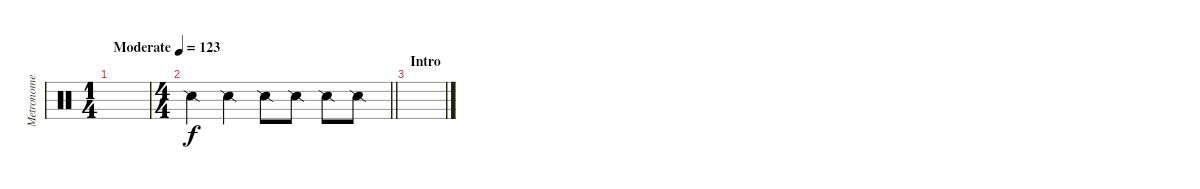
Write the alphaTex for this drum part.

\track ("Metronome" "Metronome") {instrument percussion}
\staff {score}
\articulation defaults
\ts (1 4)
\tempo (123 "Moderate")
\clef neutral
\ks c
|
\ts (4 4)
\barLineRight lightlight "Snare (side stick) 2".4 "Snare (side stick) 2".4 "Snare (side stick) 2".8 "Snare (side stick) 2".8 "Snare (side stick) 2".8 "Snare (side stick) 2".8
|
\section ("" "Intro")
